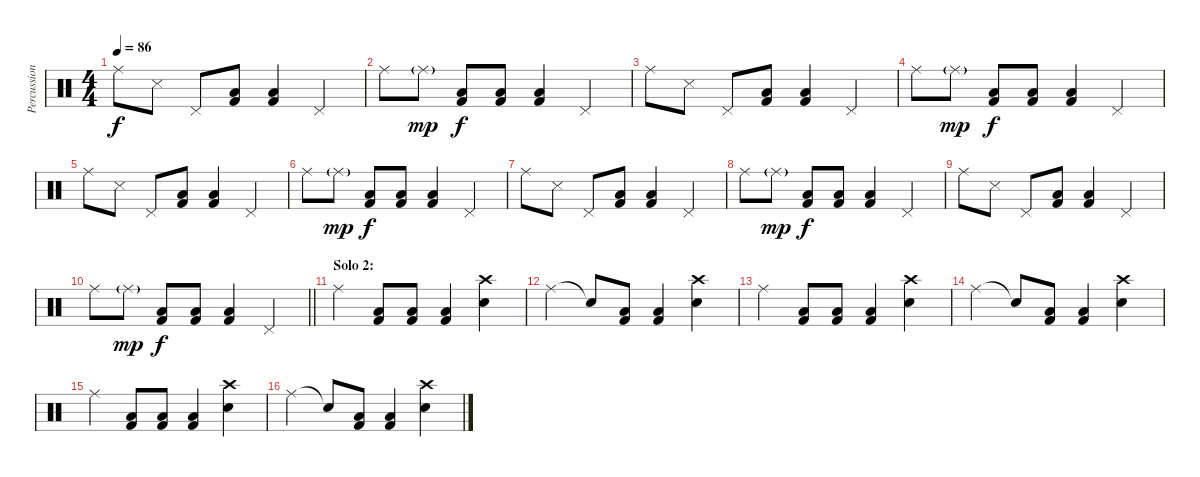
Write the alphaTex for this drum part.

\track ("Percussion" "Percussion") {instrument percussion}
\staff {score}
\articulation defaults
\ts (4 4)
\tempo 86
\clef neutral
\ks c "Ride (middle)".8{dy f} "Snare (side stick) 3".8 "Pedal Hi-Hat (hit)".8
("Low Tom (hit)" "Kick (hit) 2").8 ("Low Tom (hit)" "Kick (hit) 2").4 "Pedal Hi-Hat (hit)".4 |
"Ride (middle)".8 "Ride (middle)"{g}.8{dy mp} ("Low Tom (hit)" "Kick (hit) 2").8{dy f} ("Low Tom (hit)" "Kick (hit) 2").8 ("Low Tom (hit)" "Kick (hit) 2").4 "Pedal Hi-Hat (hit)".4 |
"Ride (middle)".8 "Snare (side stick) 3".8 "Pedal Hi-Hat (hit)".8 ("Low Tom (hit)" "Kick (hit) 2").8 ("Low Tom (hit)" "Kick (hit) 2").4 "Pedal Hi-Hat (hit)".4 |
"Ride (middle)".8 "Ride (middle)"{g}.8{dy mp} ("Low Tom (hit)" "Kick (hit) 2").8{dy f} ("Low Tom (hit)" "Kick (hit) 2").8 ("Low Tom (hit)" "Kick (hit) 2").4 "Pedal Hi-Hat (hit)".4 |
"Ride (middle)".8 "Snare (side stick) 3".8 "Pedal Hi-Hat (hit)".8 ("Low Tom (hit)" "Kick (hit) 2").8 ("Low Tom (hit)" "Kick (hit) 2").4 "Pedal Hi-Hat (hit)".4 |
"Ride (middle)".8 "Ride (middle)"{g}.8{dy mp} ("Low Tom (hit)" "Kick (hit) 2").8{dy f} ("Low Tom (hit)" "Kick (hit) 2").8 ("Low Tom (hit)" "Kick (hit) 2").4 "Pedal Hi-Hat (hit)".4 |
"Ride (middle)".8 "Snare (side stick) 3".8 "Pedal Hi-Hat (hit)".8 ("Low Tom (hit)" "Kick (hit) 2").8 ("Low Tom (hit)" "Kick (hit) 2").4 "Pedal Hi-Hat (hit)".4 |
"Ride (middle)".8 "Ride (middle)"{g}.8{dy mp} ("Low Tom (hit)" "Kick (hit) 2").8{dy f} ("Low Tom (hit)" "Kick (hit) 2").8 ("Low Tom (hit)" "Kick (hit) 2").4 "Pedal Hi-Hat (hit)".4 |
"Ride (middle)".8 "Snare (side stick) 3".8 "Pedal Hi-Hat (hit)".8 ("Low Tom (hit)" "Kick (hit) 2").8 ("Low Tom (hit)" "Kick (hit) 2").4 "Pedal Hi-Hat (hit)".4 |
\barLineRight lightlight "Ride (middle)".8 "Ride (middle)"{g}.8{dy mp}
("Low Tom (hit)" "Kick (hit) 2").8{dy f} ("Low Tom (hit)" "Kick (hit) 2").8 ("Low Tom (hit)" "Kick (hit) 2").4 "Pedal Hi-Hat (hit)".4 |
\section ("" "Solo 2:")
"Ride (middle)".4 ("Low Tom (hit)" "Kick (hit) 2").8 ("Low Tom (hit)" "Kick (hit) 2").8 ("Low Tom (hit)" "Kick (hit) 2").4 ("Crash high (hit)" "Snare (hit) 2").4 |
"Ride (middle)".4 "Snare (hit)"{t}.8 ("Low Tom (hit)" "Kick (hit) 2").8 ("Low Tom (hit)" "Kick (hit) 2").4 ("Crash high (hit)" "Snare (hit) 2").4 |
"Ride (middle)".4 ("Low Tom (hit)" "Kick (hit) 2").8 ("Low Tom (hit)" "Kick (hit) 2").8 ("Low Tom (hit)" "Kick (hit) 2").4 ("Crash high (hit)" "Snare (hit) 2").4 |
"Ride (middle)".4 "Snare (hit)"{t}.8 ("Low Tom (hit)" "Kick (hit) 2").8 ("Low Tom (hit)" "Kick (hit) 2").4 ("Crash high (hit)" "Snare (hit) 2").4 |
"Ride (middle)".4 ("Low Tom (hit)" "Kick (hit) 2").8 ("Low Tom (hit)" "Kick (hit) 2").8 ("Low Tom (hit)" "Kick (hit) 2").4 ("Crash high (hit)" "Snare (hit) 2").4 |
"Ride (middle)".4 "Snare (hit)"{t}.8 ("Low Tom (hit)" "Kick (hit) 2").8 ("Low Tom (hit)" "Kick (hit) 2").4 ("Crash high (hit)" "Snare (hit) 2").4
